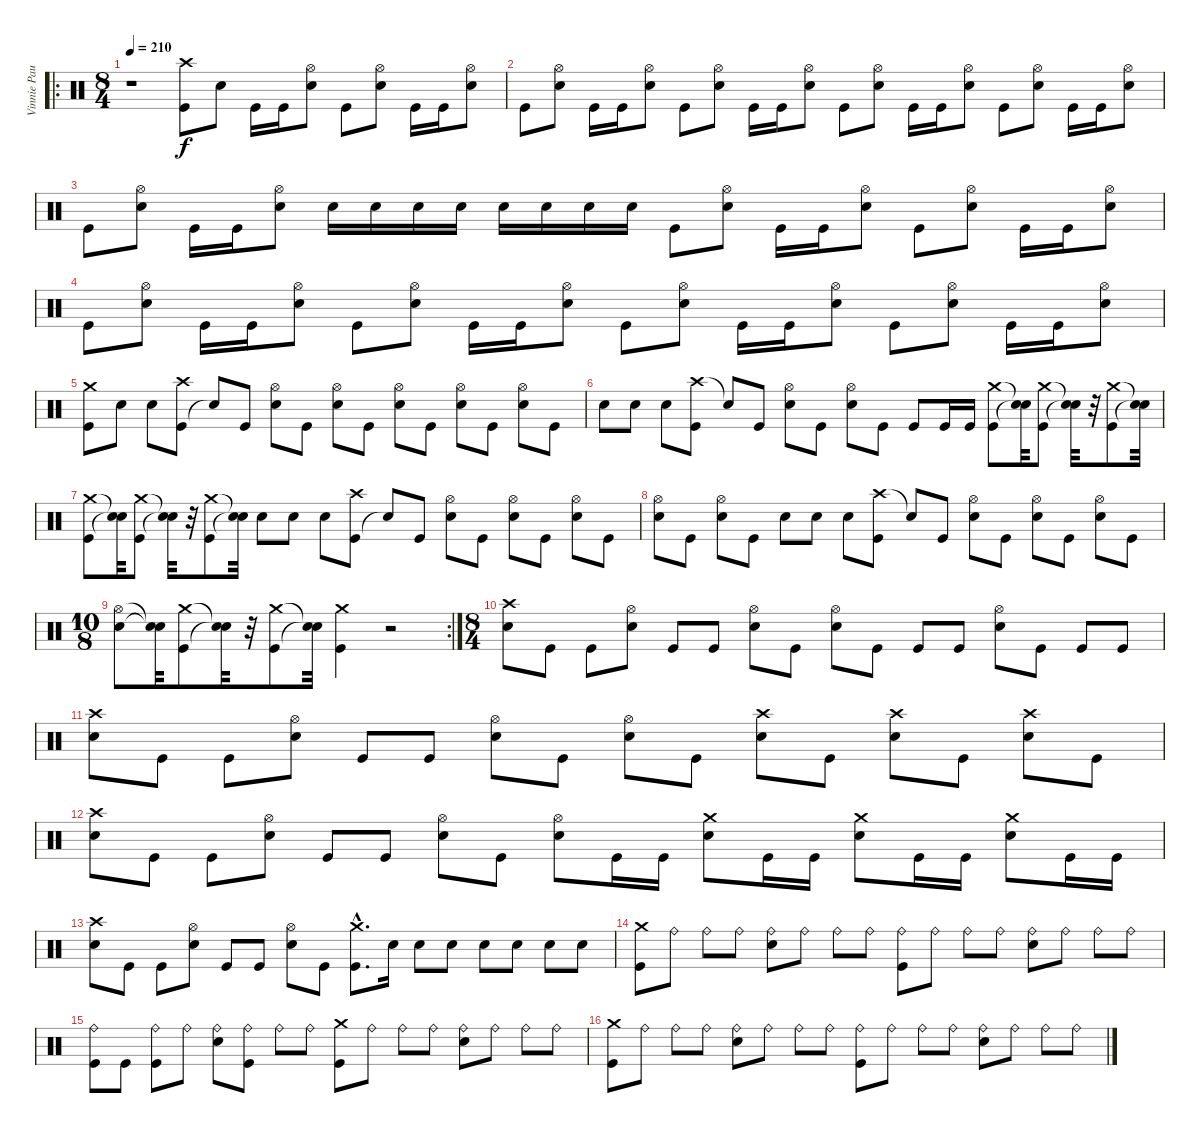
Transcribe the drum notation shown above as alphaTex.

\track ("Vinnie Paul (Drums)" "Vinnie Pau") {instrument percussion}
\staff {score}
\articulation defaults
\ro
\ts (8 4)
\tempo 210
\clef neutral
\ks c
r.1{dy f} ("Kick (hit)" "Crash high (hit)").8 "Electric Snare (hit)".8 "Kick (hit)".16 "Kick (hit)".16 ("Hi-Hat (open)" "Electric Snare (hit)").8 "Kick (hit)".8 ("Hi-Hat (open)" "Electric Snare (hit)").8 "Kick (hit)".16 "Kick (hit)".16 ("Hi-Hat (open)" "Electric Snare (hit)").8 |
"Kick (hit)".8 ("Hi-Hat (open)" "Electric Snare (hit)").8 "Kick (hit)".16 "Kick (hit)".16 ("Hi-Hat (open)" "Electric Snare (hit)").8 "Kick (hit)".8 ("Hi-Hat (open)" "Electric Snare (hit)").8 "Kick (hit)".16 "Kick (hit)".16 ("Hi-Hat (open)" "Electric Snare (hit)").8 "Kick (hit)".8 ("Hi-Hat (open)" "Electric Snare (hit)").8 "Kick (hit)".16 "Kick (hit)".16 ("Hi-Hat (open)" "Electric Snare (hit)").8 "Kick (hit)".8 ("Hi-Hat (open)" "Electric Snare (hit)").8 "Kick (hit)".16 "Kick (hit)".16 ("Hi-Hat (open)" "Electric Snare (hit)").8 |
"Kick (hit)".8 ("Hi-Hat (open)" "Electric Snare (hit)").8 "Kick (hit)".16 "Kick (hit)".16 ("Hi-Hat (open)" "Electric Snare (hit)").8 "Electric Snare (hit)".16 "Electric Snare (hit)".16 "Electric Snare (hit)".16 "Electric Snare (hit)".16 "Electric Snare (hit)".16 "Electric Snare (hit)".16 "Electric Snare (hit)".16 "Electric Snare (hit)".16 "Kick (hit)".8 ("Hi-Hat (open)" "Electric Snare (hit)").8 "Kick (hit)".16 "Kick (hit)".16 ("Hi-Hat (open)" "Electric Snare (hit)").8 "Kick (hit)".8 ("Hi-Hat (open)" "Electric Snare (hit)").8 "Kick (hit)".16 "Kick (hit)".16 ("Hi-Hat (open)" "Electric Snare (hit)").8 |
"Kick (hit)".8 ("Hi-Hat (open)" "Electric Snare (hit)").8 "Kick (hit)".16 "Kick (hit)".16 ("Hi-Hat (open)" "Electric Snare (hit)").8 "Kick (hit)".8 ("Hi-Hat (open)" "Electric Snare (hit)").8 "Kick (hit)".16 "Kick (hit)".16 ("Hi-Hat (open)" "Electric Snare (hit)").8 "Kick (hit)".8 ("Hi-Hat (open)" "Electric Snare (hit)").8 "Kick (hit)".16 "Kick (hit)".16 ("Hi-Hat (open)" "Electric Snare (hit)").8 "Kick (hit)".8 ("Hi-Hat (open)" "Electric Snare (hit)").8 "Kick (hit)".16 "Kick (hit)".16 ("Hi-Hat (open)" "Electric Snare (hit)").8 |
("Kick (hit)" "Crash medium (hit)").8 "Electric Snare (hit)".8 "Electric Snare (hit)".8 ("Kick (hit)" "Crash high (hit)").8 "Snare (hit)"{t}.8 "Kick (hit)".8 ("Hi-Hat (open)" "Electric Snare (hit)").8 "Kick (hit)".8 ("Hi-Hat (open)" "Electric Snare (hit)").8 "Kick (hit)".8 ("Hi-Hat (open)" "Electric Snare (hit)").8 "Kick (hit)".8 ("Hi-Hat (open)" "Electric Snare (hit)").8 "Kick (hit)".8 ("Hi-Hat (open)" "Electric Snare (hit)").8 "Kick (hit)".8 |
"Electric Snare (hit)".8 "Electric Snare (hit)".8 "Electric Snare (hit)".8 ("Crash high (hit)" "Kick (hit)").8 "Snare (hit)"{t}.8 "Kick (hit)".8 ("Hi-Hat (open)" "Electric Snare (hit)").8 "Kick (hit)".8 ("Hi-Hat (open)" "Electric Snare (hit)").8 "Kick (hit)".8 "Kick (hit)".8 "Kick (hit)".16 "Kick (hit)".16 ("Crash medium (hit)" "Kick (hit)").8 ("Snare (hit)"{t} "Snare (hit)"{t}).32 ("Crash medium (hit)" "Kick (hit)").8 ("Snare (hit)"{t} "Snare (hit)"{t}).32 r.32 ("Crash medium (hit)" "Kick (hit)").8 ("Snare (hit)"{t} "Snare (hit)"{t}).32 |
("Kick (hit)" "Crash medium (hit)").8 ("Snare (hit)"{t} "Snare (hit)"{t}).32 ("Kick (hit)" "Crash medium (hit)").8 ("Snare (hit)"{t} "Snare (hit)"{t}).32 r.32 ("Kick (hit)" "Crash medium (hit)").8 ("Snare (hit)"{t} "Snare (hit)"{t}).32 "Electric Snare (hit)".8 "Electric Snare (hit)".8 "Electric Snare (hit)".8 ("Kick (hit)" "Crash high (hit)").8 "Snare (hit)"{t}.8 "Kick (hit)".8 ("Hi-Hat (open)" "Electric Snare (hit)").8 "Kick (hit)".8 ("Hi-Hat (open)" "Electric Snare (hit)").8 "Kick (hit)".8 ("Hi-Hat (open)" "Electric Snare (hit)").8 "Kick (hit)".8 |
("Hi-Hat (open)" "Electric Snare (hit)").8 "Kick (hit)".8 ("Hi-Hat (open)" "Electric Snare (hit)").8 "Kick (hit)".8 "Electric Snare (hit)".8 "Electric Snare (hit)".8 "Electric Snare (hit)".8 ("Crash high (hit)" "Kick (hit)").8 "Snare (hit)"{t}.8 "Kick (hit)".8 ("Hi-Hat (open)" "Electric Snare (hit)").8 "Kick (hit)".8 ("Hi-Hat (open)" "Electric Snare (hit)").8 "Kick (hit)".8 ("Hi-Hat (open)" "Electric Snare (hit)").8 "Kick (hit)".8 |
\rc 2
\ts (10 8)
("Hi-Hat (open)" "Electric Snare (hit)").8 ("Snare (hit)"{t} "Snare (hit)"{t}).32 ("Kick (hit)" "Crash medium (hit)").8 ("Snare (hit)"{t} "Snare (hit)"{t}).32 r.32 ("Kick (hit)" "Crash medium (hit)").8 ("Snare (hit)"{t} "Snare (hit)"{t}).32 ("Kick (hit)" "Crash medium (hit)").4 r.2 |
\ts (8 4)
("Electric Snare (hit)" "Crash high (hit)").8 "Kick (hit)".8 "Kick (hit)".8 ("Hi-Hat (open)" "Electric Snare (hit)").8 "Kick (hit)".8 "Kick (hit)".8 ("Hi-Hat (open)" "Electric Snare (hit)").8 "Kick (hit)".8 ("Hi-Hat (open)" "Electric Snare (hit)").8 "Kick (hit)".8 "Kick (hit)".8 "Kick (hit)".8 ("Hi-Hat (open)" "Electric Snare (hit)").8 "Kick (hit)".8 "Kick (hit)".8 "Kick (hit)".8 |
("Electric Snare (hit)" "Crash high (hit)").8 "Kick (hit)".8 "Kick (hit)".8 ("Hi-Hat (open)" "Electric Snare (hit)").8 "Kick (hit)".8 "Kick (hit)".8 ("Hi-Hat (open)" "Electric Snare (hit)").8 "Kick (hit)".8 ("Hi-Hat (open)" "Electric Snare (hit)").8 "Kick (hit)".8 ("Electric Snare (hit)" "Crash high (hit)").8 "Kick (hit)".8 ("Electric Snare (hit)" "Crash high (hit)").8 "Kick (hit)".8 ("Electric Snare (hit)" "Crash high (hit)").8 "Kick (hit)".8 |
("Electric Snare (hit)" "Crash high (hit)").8 "Kick (hit)".8 "Kick (hit)".8 ("Hi-Hat (open)" "Electric Snare (hit)").8 "Kick (hit)".8 "Kick (hit)".8 ("Hi-Hat (open)" "Electric Snare (hit)").8 "Kick (hit)".8 ("Hi-Hat (open)" "Electric Snare (hit)").8 "Kick (hit)".16 "Kick (hit)".16 ("Crash medium (hit)" "Electric Snare (hit)").8 "Kick (hit)".16 "Kick (hit)".16 ("Crash medium (hit)" "Electric Snare (hit)").8 "Kick (hit)".16 "Kick (hit)".16 ("Crash medium (hit)" "Electric Snare (hit)").8 "Kick (hit)".16 "Kick (hit)".16 |
("Electric Snare (hit)" "Crash high (hit)").8 "Kick (hit)".8 "Kick (hit)".8 ("Hi-Hat (open)" "Electric Snare (hit)").8 "Kick (hit)".8 "Kick (hit)".8 ("Hi-Hat (open)" "Electric Snare (hit)").8 "Kick (hit)".8 ("Crash medium (hit)"{hac} "Kick (hit)"{hac}).8{d} "Electric Snare (hit)".16 "Electric Snare (hit)".8 "Electric Snare (hit)".8 "Electric Snare (hit)".8 "Electric Snare (hit)".8 "Electric Snare (hit)".8 "Electric Snare (hit)".8 |
("Crash medium (hit)" "Kick (hit)").8 "Ride (bell)".8 "Ride (bell)".8 "Ride (bell)".8 ("Electric Snare (hit)" "Ride (bell)").8 "Ride (bell)".8 "Ride (bell)".8 "Ride (bell)".8 ("Kick (hit)" "Ride (bell)").8 "Ride (bell)".8 "Ride (bell)".8 "Ride (bell)".8 ("Electric Snare (hit)" "Ride (bell)").8 "Ride (bell)".8 "Ride (bell)".8 "Ride (bell)".8 |
("Kick (hit)" "Ride (bell)").8 "Kick (hit)".8 ("Kick (hit)" "Ride (bell)").8 "Ride (bell)".8 ("Electric Snare (hit)" "Ride (bell)").8 ("Kick (hit)" "Ride (bell)").8 "Ride (bell)".8 "Ride (bell)".8 ("Kick (hit)" "Crash medium (hit)").8 "Ride (bell)".8 "Ride (bell)".8 "Ride (bell)".8 ("Electric Snare (hit)" "Ride (bell)").8 "Ride (bell)".8 "Ride (bell)".8 "Ride (bell)".8 |
("Kick (hit)" "Crash medium (hit)").8 "Ride (bell)".8 "Ride (bell)".8 "Ride (bell)".8 ("Electric Snare (hit)" "Ride (bell)").8 "Ride (bell)".8 "Ride (bell)".8 "Ride (bell)".8 ("Kick (hit)" "Ride (bell)").8 "Ride (bell)".8 "Ride (bell)".8 "Ride (bell)".8 ("Electric Snare (hit)" "Ride (bell)").8 "Ride (bell)".8 "Ride (bell)".8 "Ride (bell)".8
